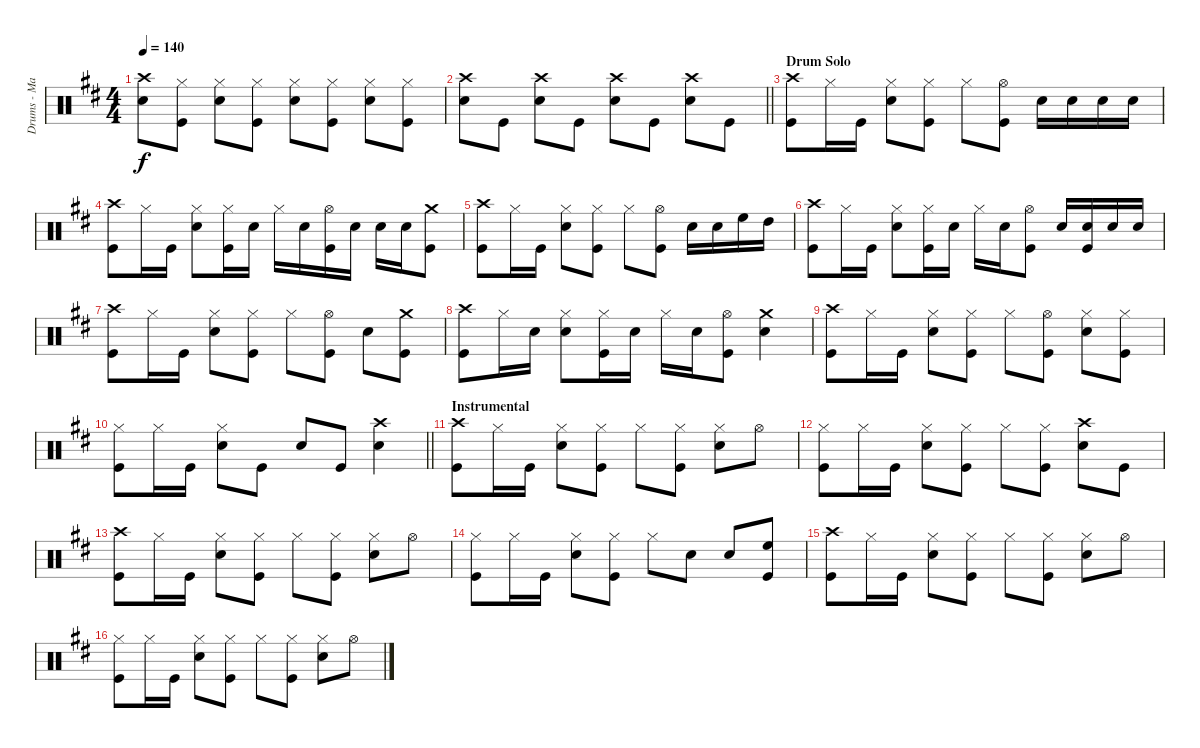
\track ("Drums - Matt Helders" "Drums - Ma") {instrument percussion}
\staff {score}
\articulation defaults
\ts (4 4)
\tempo 140
\clef neutral
\ks d
("Crash high (hit)" "Snare (hit) 2").8{dy f} ("Hi-Hat (closed)" "Kick (hit)").8 ("Hi-Hat (closed)" "Snare (hit) 2").8 ("Hi-Hat (closed)" "Kick (hit)").8 ("Hi-Hat (closed)" "Snare (hit) 2").8 ("Hi-Hat (closed)" "Kick (hit)").8 ("Hi-Hat (closed)" "Snare (hit) 2").8 ("Hi-Hat (closed)" "Kick (hit)").8 |
\barLineRight lightlight
("Crash high (hit)" "Snare (hit) 2").8 "Kick (hit)".8 ("Crash high (hit)" "Snare (hit) 2").8 "Kick (hit)".8 ("Crash high (hit)" "Snare (hit) 2").8 "Kick (hit)".8 ("Crash high (hit)" "Snare (hit) 2").8 "Kick (hit)".8 |
\section ("" "Drum Solo")
("Crash high (hit)" "Kick (hit)").8 "Hi-Hat (closed)".16 "Kick (hit)".16 ("Hi-Hat (closed)" "Snare (hit) 2").8 ("Hi-Hat (closed)" "Kick (hit)").8 "Hi-Hat (closed)".8 ("Hi-Hat (open)" "Kick (hit)").8 "Snare (hit) 2".16 "Snare (hit) 2".16 "Snare (hit) 2".16 "Snare (hit) 2".16 |
("Crash high (hit)" "Kick (hit)").8 "Hi-Hat (closed)".16 "Kick (hit)".16 ("Hi-Hat (closed)" "Snare (hit) 2").8 ("Hi-Hat (closed)" "Kick (hit)").16 "Snare (hit) 2".16 "Hi-Hat (closed)".16 "Snare (hit) 2".16 ("Hi-Hat (open)" "Kick (hit)").16 "Snare (hit) 2".16 "Snare (hit) 2".16 "Snare (hit) 2".16 ("Crash medium (hit)" "Kick (hit)").8 |
("Crash high (hit)" "Kick (hit)").8 "Hi-Hat (closed)".16 "Kick (hit)".16 ("Hi-Hat (closed)" "Snare (hit) 2").8 ("Hi-Hat (closed)" "Kick (hit)").8 "Hi-Hat (closed)".8 ("Hi-Hat (open)" "Kick (hit)").8 "Snare (hit) 2".16 "Snare (hit) 2".16 "High Floor Tom (hit)".16 "High Tom (hit)".16 |
("Crash high (hit)" "Kick (hit)").8 "Hi-Hat (closed)".16 "Kick (hit)".16 ("Hi-Hat (closed)" "Snare (hit) 2").8 ("Hi-Hat (closed)" "Kick (hit)").16 "Snare (hit) 2".16 "Hi-Hat (closed)".16 "Snare (hit) 2".16 ("Hi-Hat (open)" "Kick (hit)").8 "Snare (hit) 2".16 ("Snare (hit) 2" "Kick (hit)").16 "Snare (hit) 2".16 "Snare (hit) 2".16 |
("Crash high (hit)" "Kick (hit)").8 "Hi-Hat (closed)".16 "Kick (hit)".16 ("Hi-Hat (closed)" "Snare (hit) 2").8 ("Hi-Hat (closed)" "Kick (hit)").8 "Hi-Hat (closed)".8 ("Hi-Hat (open)" "Kick (hit)").8 "Snare (hit) 2".8 ("Crash medium (hit)" "Kick (hit)").8 |
("Crash high (hit)" "Kick (hit)").8 "Hi-Hat (closed)".16 "Snare (hit) 2".16 ("Hi-Hat (closed)" "Snare (hit) 2").8 ("Hi-Hat (closed)" "Kick (hit)").16 "Snare (hit) 2".16 "Hi-Hat (closed)".16 "Snare (hit) 2".16 ("Hi-Hat (open)" "Kick (hit)").8 ("Crash medium (hit)" "Snare (hit) 2").4 |
("Crash high (hit)" "Kick (hit)").8 "Hi-Hat (closed)".16 "Kick (hit)".16 ("Hi-Hat (closed)" "Snare (hit) 2").8 ("Hi-Hat (closed)" "Kick (hit)").8 "Hi-Hat (closed)".8 ("Hi-Hat (open)" "Kick (hit)").8 ("Hi-Hat (closed)" "Snare (hit) 2").8 ("Hi-Hat (closed)" "Kick (hit)").8 |
\barLineRight lightlight
("Hi-Hat (closed)" "Kick (hit)").8 "Hi-Hat (closed)".16 "Kick (hit)".16 ("Hi-Hat (closed)" "Snare (hit) 2").8 "Kick (hit)".8 "Snare (hit) 2".8 "Kick (hit)".8 ("Crash high (hit)" "Snare (hit) 2").4 |
\section ("" "Instrumental")
("Crash high (hit)" "Kick (hit)").8 "Hi-Hat (closed)".16 "Kick (hit)".16 ("Hi-Hat (closed)" "Snare (hit) 2").8 ("Hi-Hat (closed)" "Kick (hit)").8 "Hi-Hat (closed)".8 ("Hi-Hat (closed)" "Kick (hit)").8 ("Hi-Hat (closed)" "Snare (hit) 2").8 "Hi-Hat (open)".8 |
("Hi-Hat (closed)" "Kick (hit)").8 "Hi-Hat (closed)".16 "Kick (hit)".16 ("Hi-Hat (closed)" "Snare (hit) 2").8 ("Hi-Hat (closed)" "Kick (hit)").8 "Hi-Hat (closed)".8 ("Hi-Hat (closed)" "Kick (hit)").8 ("Crash high (hit)" "Snare (hit) 2").8 "Kick (hit)".8 |
("Crash high (hit)" "Kick (hit)").8 "Hi-Hat (closed)".16 "Kick (hit)".16 ("Hi-Hat (closed)" "Snare (hit) 2").8 ("Hi-Hat (closed)" "Kick (hit)").8 "Hi-Hat (closed)".8 ("Hi-Hat (closed)" "Kick (hit)").8 ("Hi-Hat (closed)" "Snare (hit) 2").8 "Hi-Hat (open)".8 |
("Hi-Hat (closed)" "Kick (hit)").8 "Hi-Hat (closed)".16 "Kick (hit)".16 ("Hi-Hat (closed)" "Snare (hit) 2").8 ("Hi-Hat (closed)" "Kick (hit)").8 "Hi-Hat (closed)".8 "Snare (hit) 2".8 "Snare (hit) 2".8 ("High Floor Tom (hit)" "Kick (hit)").8 |
("Crash high (hit)" "Kick (hit)").8 "Hi-Hat (closed)".16 "Kick (hit)".16 ("Hi-Hat (closed)" "Snare (hit) 2").8 ("Hi-Hat (closed)" "Kick (hit)").8 "Hi-Hat (closed)".8 ("Hi-Hat (closed)" "Kick (hit)").8 ("Hi-Hat (closed)" "Snare (hit) 2").8 "Hi-Hat (open)".8 |
("Hi-Hat (closed)" "Kick (hit)").8 "Hi-Hat (closed)".16 "Kick (hit)".16 ("Hi-Hat (closed)" "Snare (hit) 2").8 ("Hi-Hat (closed)" "Kick (hit)").8 "Hi-Hat (closed)".8 ("Hi-Hat (closed)" "Kick (hit)").8 ("Hi-Hat (closed)" "Snare (hit) 2").8 "Hi-Hat (open)".8
